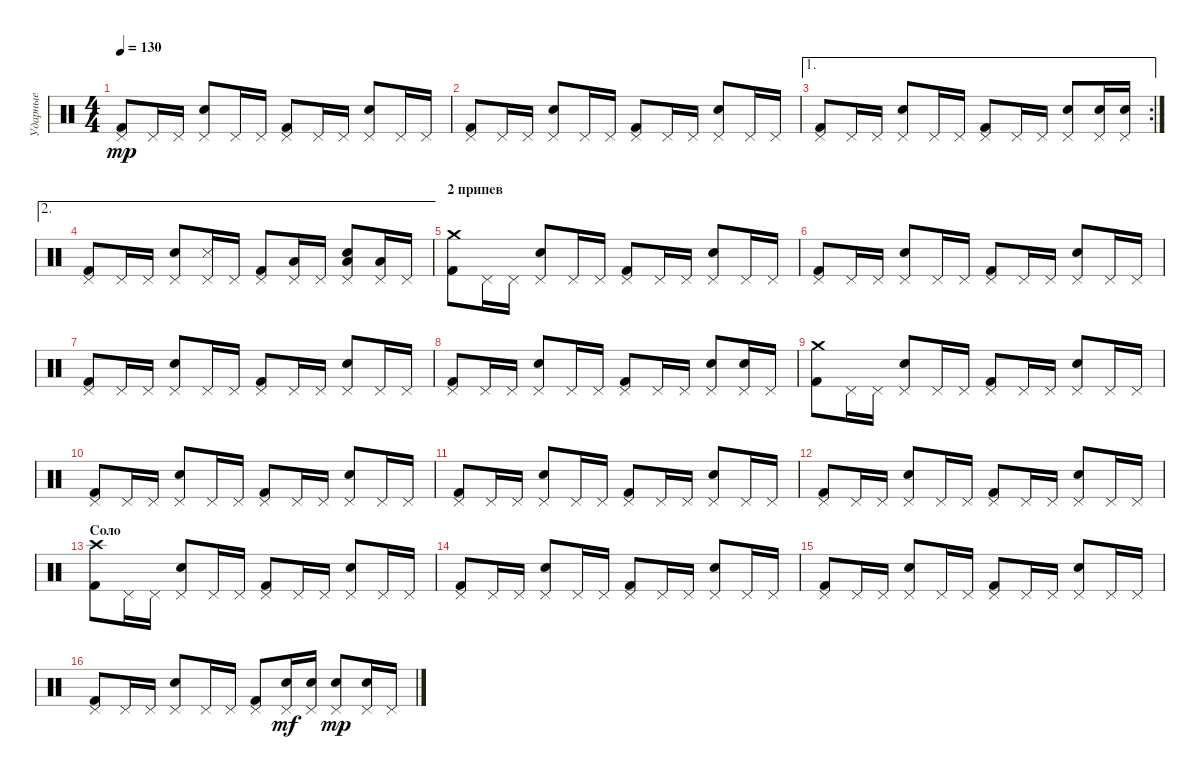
\track ("Ударные" "Ударные") {instrument percussion}
\staff {score}
\articulation defaults
\ts (4 4)
\tempo 130
\clef neutral
\ks c
("Pedal Hi-Hat (hit)" "Kick (hit) 2").8{dy mp} "Pedal Hi-Hat (hit)".16 "Pedal Hi-Hat (hit)".16 ("Pedal Hi-Hat (hit)" "Snare (hit) 2").8 "Pedal Hi-Hat (hit)".16 "Pedal Hi-Hat (hit)".16 ("Pedal Hi-Hat (hit)" "Kick (hit) 2").8 "Pedal Hi-Hat (hit)".16 "Pedal Hi-Hat (hit)".16 ("Pedal Hi-Hat (hit)" "Snare (hit) 2").8 "Pedal Hi-Hat (hit)".16 "Pedal Hi-Hat (hit)".16 |
("Pedal Hi-Hat (hit)" "Kick (hit) 2").8 "Pedal Hi-Hat (hit)".16 "Pedal Hi-Hat (hit)".16 ("Pedal Hi-Hat (hit)" "Snare (hit) 2").8 "Pedal Hi-Hat (hit)".16 "Pedal Hi-Hat (hit)".16 ("Pedal Hi-Hat (hit)" "Kick (hit) 2").8 "Pedal Hi-Hat (hit)".16 "Pedal Hi-Hat (hit)".16 ("Pedal Hi-Hat (hit)" "Snare (hit) 2").8 "Pedal Hi-Hat (hit)".16 "Pedal Hi-Hat (hit)".16 |
\ae 1
\rc 2
("Pedal Hi-Hat (hit)" "Kick (hit) 2").8 "Pedal Hi-Hat (hit)".16 "Pedal Hi-Hat (hit)".16 ("Pedal Hi-Hat (hit)" "Snare (hit) 2").8 "Pedal Hi-Hat (hit)".16 "Pedal Hi-Hat (hit)".16 ("Pedal Hi-Hat (hit)" "Kick (hit) 2").8 "Pedal Hi-Hat (hit)".16 "Pedal Hi-Hat (hit)".16 ("Pedal Hi-Hat (hit)" "Snare (hit) 2").8 ("Pedal Hi-Hat (hit)" "Snare (hit) 2").16 ("Pedal Hi-Hat (hit)" "Snare (hit) 2").16 |
\ae 2
("Pedal Hi-Hat (hit)" "Kick (hit) 2").8 "Pedal Hi-Hat (hit)".16 "Pedal Hi-Hat (hit)".16 ("Pedal Hi-Hat (hit)" "Snare (hit) 2").8 ("Pedal Hi-Hat (hit)" "Snare (side stick) 3").16 "Pedal Hi-Hat (hit)".16 ("Pedal Hi-Hat (hit)" "Kick (hit) 2").8 ("Pedal Hi-Hat (hit)" "Low Tom (hit)").16 "Pedal Hi-Hat (hit)".16 ("Pedal Hi-Hat (hit)" "Snare (hit) 2" "Low Tom (hit)").8 ("Pedal Hi-Hat (hit)" "Low Tom (hit)").16 "Pedal Hi-Hat (hit)".16 |
\section ("" "2 припев")
("Crash medium (hit)" "Kick (hit) 2").8 "Pedal Hi-Hat (hit)".16 "Pedal Hi-Hat (hit)".16 ("Pedal Hi-Hat (hit)" "Snare (hit) 2").8 "Pedal Hi-Hat (hit)".16 "Pedal Hi-Hat (hit)".16 ("Pedal Hi-Hat (hit)" "Kick (hit) 2").8 "Pedal Hi-Hat (hit)".16 "Pedal Hi-Hat (hit)".16 ("Pedal Hi-Hat (hit)" "Snare (hit) 2").8 "Pedal Hi-Hat (hit)".16 "Pedal Hi-Hat (hit)".16 |
("Pedal Hi-Hat (hit)" "Kick (hit) 2").8 "Pedal Hi-Hat (hit)".16 "Pedal Hi-Hat (hit)".16 ("Pedal Hi-Hat (hit)" "Snare (hit) 2").8 "Pedal Hi-Hat (hit)".16 "Pedal Hi-Hat (hit)".16 ("Pedal Hi-Hat (hit)" "Kick (hit) 2").8 "Pedal Hi-Hat (hit)".16 "Pedal Hi-Hat (hit)".16 ("Pedal Hi-Hat (hit)" "Snare (hit) 2").8 "Pedal Hi-Hat (hit)".16 "Pedal Hi-Hat (hit)".16 |
("Pedal Hi-Hat (hit)" "Kick (hit) 2").8 "Pedal Hi-Hat (hit)".16 "Pedal Hi-Hat (hit)".16 ("Pedal Hi-Hat (hit)" "Snare (hit) 2").8 "Pedal Hi-Hat (hit)".16 "Pedal Hi-Hat (hit)".16 ("Pedal Hi-Hat (hit)" "Kick (hit) 2").8 "Pedal Hi-Hat (hit)".16 "Pedal Hi-Hat (hit)".16 ("Pedal Hi-Hat (hit)" "Snare (hit) 2").8 "Pedal Hi-Hat (hit)".16 "Pedal Hi-Hat (hit)".16 |
("Pedal Hi-Hat (hit)" "Kick (hit) 2").8 "Pedal Hi-Hat (hit)".16 "Pedal Hi-Hat (hit)".16 ("Pedal Hi-Hat (hit)" "Snare (hit) 2").8 "Pedal Hi-Hat (hit)".16 "Pedal Hi-Hat (hit)".16 ("Pedal Hi-Hat (hit)" "Kick (hit) 2").8 "Pedal Hi-Hat (hit)".16 "Pedal Hi-Hat (hit)".16 ("Pedal Hi-Hat (hit)" "Snare (hit) 2").8 ("Pedal Hi-Hat (hit)" "Snare (hit) 2").16 "Pedal Hi-Hat (hit)".16 |
("Crash medium (hit)" "Kick (hit) 2").8 "Pedal Hi-Hat (hit)".16 "Pedal Hi-Hat (hit)".16 ("Pedal Hi-Hat (hit)" "Snare (hit) 2").8 "Pedal Hi-Hat (hit)".16 "Pedal Hi-Hat (hit)".16 ("Pedal Hi-Hat (hit)" "Kick (hit) 2").8 "Pedal Hi-Hat (hit)".16 "Pedal Hi-Hat (hit)".16 ("Pedal Hi-Hat (hit)" "Snare (hit) 2").8 "Pedal Hi-Hat (hit)".16 "Pedal Hi-Hat (hit)".16 |
("Pedal Hi-Hat (hit)" "Kick (hit) 2").8 "Pedal Hi-Hat (hit)".16 "Pedal Hi-Hat (hit)".16 ("Pedal Hi-Hat (hit)" "Snare (hit) 2").8 "Pedal Hi-Hat (hit)".16 "Pedal Hi-Hat (hit)".16 ("Pedal Hi-Hat (hit)" "Kick (hit) 2").8 "Pedal Hi-Hat (hit)".16 "Pedal Hi-Hat (hit)".16 ("Pedal Hi-Hat (hit)" "Snare (hit) 2").8 "Pedal Hi-Hat (hit)".16 "Pedal Hi-Hat (hit)".16 |
("Pedal Hi-Hat (hit)" "Kick (hit) 2").8 "Pedal Hi-Hat (hit)".16 "Pedal Hi-Hat (hit)".16 ("Pedal Hi-Hat (hit)" "Snare (hit) 2").8 "Pedal Hi-Hat (hit)".16 "Pedal Hi-Hat (hit)".16 ("Pedal Hi-Hat (hit)" "Kick (hit) 2").8 "Pedal Hi-Hat (hit)".16 "Pedal Hi-Hat (hit)".16 ("Pedal Hi-Hat (hit)" "Snare (hit) 2").8 "Pedal Hi-Hat (hit)".16 "Pedal Hi-Hat (hit)".16 |
("Pedal Hi-Hat (hit)" "Kick (hit) 2").8 "Pedal Hi-Hat (hit)".16 "Pedal Hi-Hat (hit)".16 ("Pedal Hi-Hat (hit)" "Snare (hit) 2").8 "Pedal Hi-Hat (hit)".16 "Pedal Hi-Hat (hit)".16 ("Pedal Hi-Hat (hit)" "Kick (hit) 2").8 "Pedal Hi-Hat (hit)".16 "Pedal Hi-Hat (hit)".16 ("Pedal Hi-Hat (hit)" "Snare (hit) 2").8 "Pedal Hi-Hat (hit)".16 "Pedal Hi-Hat (hit)".16 |
\section ("" "Соло")
("Crash high (hit)" "Kick (hit) 2").8 "Pedal Hi-Hat (hit)".16 "Pedal Hi-Hat (hit)".16 ("Pedal Hi-Hat (hit)" "Snare (hit) 2").8 "Pedal Hi-Hat (hit)".16 "Pedal Hi-Hat (hit)".16 ("Pedal Hi-Hat (hit)" "Kick (hit) 2").8 "Pedal Hi-Hat (hit)".16 "Pedal Hi-Hat (hit)".16 ("Pedal Hi-Hat (hit)" "Snare (hit) 2").8 "Pedal Hi-Hat (hit)".16 "Pedal Hi-Hat (hit)".16 |
("Pedal Hi-Hat (hit)" "Kick (hit) 2").8 "Pedal Hi-Hat (hit)".16 "Pedal Hi-Hat (hit)".16 ("Pedal Hi-Hat (hit)" "Snare (hit) 2").8 "Pedal Hi-Hat (hit)".16 "Pedal Hi-Hat (hit)".16 ("Pedal Hi-Hat (hit)" "Kick (hit) 2").8 "Pedal Hi-Hat (hit)".16 "Pedal Hi-Hat (hit)".16 ("Pedal Hi-Hat (hit)" "Snare (hit) 2").8 "Pedal Hi-Hat (hit)".16 "Pedal Hi-Hat (hit)".16 |
("Pedal Hi-Hat (hit)" "Kick (hit) 2").8 "Pedal Hi-Hat (hit)".16 "Pedal Hi-Hat (hit)".16 ("Pedal Hi-Hat (hit)" "Snare (hit) 2").8 "Pedal Hi-Hat (hit)".16 "Pedal Hi-Hat (hit)".16 ("Pedal Hi-Hat (hit)" "Kick (hit) 2").8 "Pedal Hi-Hat (hit)".16 "Pedal Hi-Hat (hit)".16 ("Pedal Hi-Hat (hit)" "Snare (hit) 2").8 "Pedal Hi-Hat (hit)".16 "Pedal Hi-Hat (hit)".16 |
("Pedal Hi-Hat (hit)" "Kick (hit) 2").8 "Pedal Hi-Hat (hit)".16 "Pedal Hi-Hat (hit)".16 ("Pedal Hi-Hat (hit)" "Snare (hit) 2").8 "Pedal Hi-Hat (hit)".16 "Pedal Hi-Hat (hit)".16 ("Pedal Hi-Hat (hit)" "Kick (hit) 2").8 ("Pedal Hi-Hat (hit)" "Snare (hit) 2").16{dy mf} ("Pedal Hi-Hat (hit)" "Snare (hit) 2").16 ("Pedal Hi-Hat (hit)" "Snare (hit) 2").8{dy mp} ("Pedal Hi-Hat (hit)" "Snare (hit) 2").16 "Pedal Hi-Hat (hit)".16
